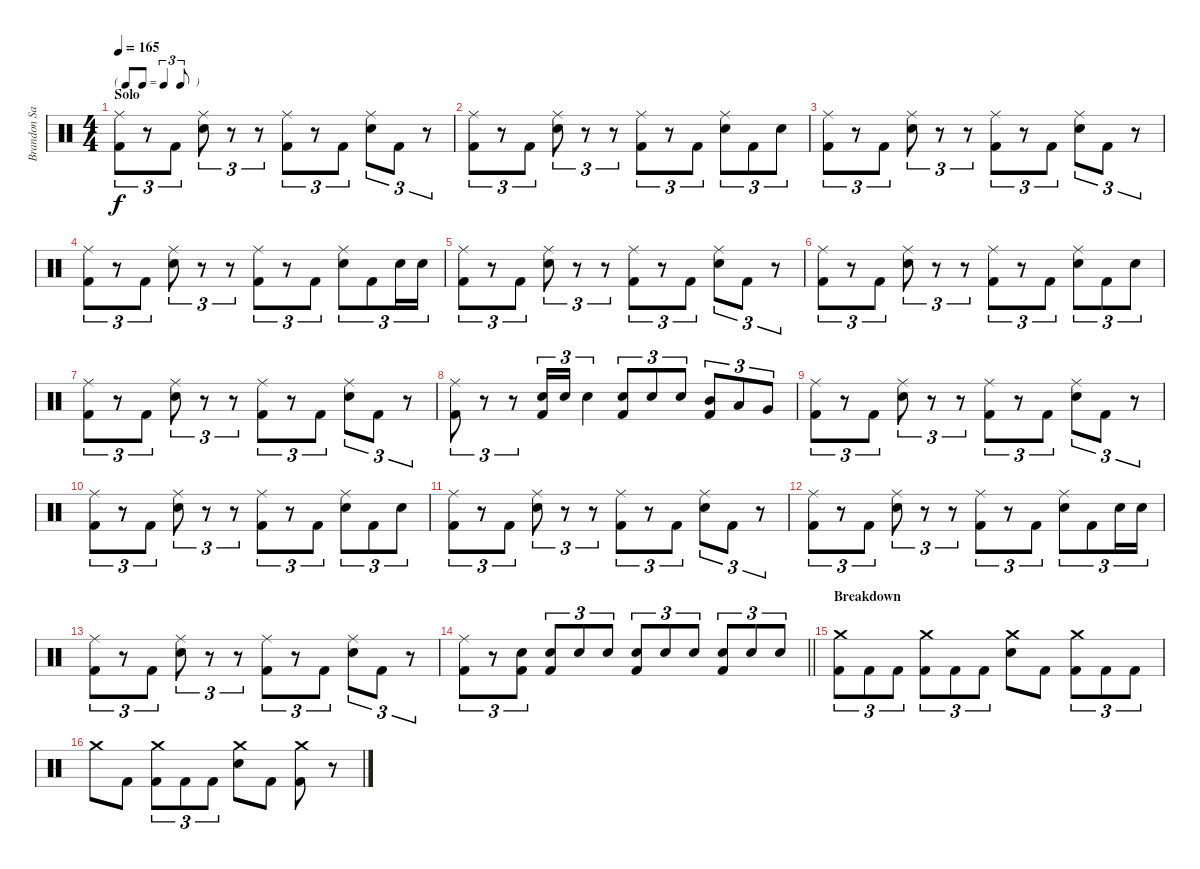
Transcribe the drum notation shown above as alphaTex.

\track ("Brandon Saller" "Brandon Sa") {instrument percussion}
\staff {score}
\articulation defaults
\ts (4 4)
\tf triplet8th
\section ("" "Solo")
\tempo 165
\clef neutral
\ks c
("Ride (middle)" "Kick (hit) 2").8{tu (3 2) dy f} r.8{tu (3 2)} "Kick (hit) 2".8{tu (3 2)} ("Ride (middle)" "Electric Snare (hit)").8{tu (3 2)} r.8{tu (3 2)} r.8{tu (3 2)} ("Ride (middle)" "Kick (hit) 2").8{tu (3 2)} r.8{tu (3 2)} "Kick (hit) 2".8{tu (3 2)} ("Ride (middle)" "Electric Snare (hit)").8{tu (3 2)} "Kick (hit) 2".8{tu (3 2)} r.8{tu (3 2)} |
("Ride (middle)" "Kick (hit) 2").8{tu (3 2)} r.8{tu (3 2)} "Kick (hit) 2".8{tu (3 2)} ("Ride (middle)" "Electric Snare (hit)").8{tu (3 2)} r.8{tu (3 2)} r.8{tu (3 2)} ("Ride (middle)" "Kick (hit) 2").8{tu (3 2)} r.8{tu (3 2)} "Kick (hit) 2".8{tu (3 2)} ("Ride (middle)" "Electric Snare (hit)").8{tu (3 2)} "Kick (hit) 2".8{tu (3 2)} "Electric Snare (hit)".8{tu (3 2)} |
("Ride (middle)" "Kick (hit) 2").8{tu (3 2)} r.8{tu (3 2)} "Kick (hit) 2".8{tu (3 2)} ("Ride (middle)" "Electric Snare (hit)").8{tu (3 2)} r.8{tu (3 2)} r.8{tu (3 2)} ("Ride (middle)" "Kick (hit) 2").8{tu (3 2)} r.8{tu (3 2)} "Kick (hit) 2".8{tu (3 2)} ("Ride (middle)" "Electric Snare (hit)").8{tu (3 2)} "Kick (hit) 2".8{tu (3 2)} r.8{tu (3 2)} |
("Ride (middle)" "Kick (hit) 2").8{tu (3 2)} r.8{tu (3 2)} "Kick (hit) 2".8{tu (3 2)} ("Ride (middle)" "Electric Snare (hit)").8{tu (3 2)} r.8{tu (3 2)} r.8{tu (3 2)} ("Ride (middle)" "Kick (hit) 2").8{tu (3 2)} r.8{tu (3 2)} "Kick (hit) 2".8{tu (3 2)} ("Ride (middle)" "Electric Snare (hit)").8{tu (3 2)} "Kick (hit) 2".8{tu (3 2)} "Electric Snare (hit)".16{tu (3 2)} "Electric Snare (hit)".16{tu (3 2)} |
("Ride (middle)" "Kick (hit) 2").8{tu (3 2)} r.8{tu (3 2)} "Kick (hit) 2".8{tu (3 2)} ("Ride (middle)" "Electric Snare (hit)").8{tu (3 2)} r.8{tu (3 2)} r.8{tu (3 2)} ("Ride (middle)" "Kick (hit) 2").8{tu (3 2)} r.8{tu (3 2)} "Kick (hit) 2".8{tu (3 2)} ("Ride (middle)" "Electric Snare (hit)").8{tu (3 2)} "Kick (hit) 2".8{tu (3 2)} r.8{tu (3 2)} |
("Ride (middle)" "Kick (hit) 2").8{tu (3 2)} r.8{tu (3 2)} "Kick (hit) 2".8{tu (3 2)} ("Ride (middle)" "Electric Snare (hit)").8{tu (3 2)} r.8{tu (3 2)} r.8{tu (3 2)} ("Ride (middle)" "Kick (hit) 2").8{tu (3 2)} r.8{tu (3 2)} "Kick (hit) 2".8{tu (3 2)} ("Ride (middle)" "Electric Snare (hit)").8{tu (3 2)} "Kick (hit) 2".8{tu (3 2)} "Electric Snare (hit)".8{tu (3 2)} |
("Ride (middle)" "Kick (hit) 2").8{tu (3 2)} r.8{tu (3 2)} "Kick (hit) 2".8{tu (3 2)} ("Ride (middle)" "Electric Snare (hit)").8{tu (3 2)} r.8{tu (3 2)} r.8{tu (3 2)} ("Ride (middle)" "Kick (hit) 2").8{tu (3 2)} r.8{tu (3 2)} "Kick (hit) 2".8{tu (3 2)} ("Ride (middle)" "Electric Snare (hit)").8{tu (3 2)} "Kick (hit) 2".8{tu (3 2)} r.8{tu (3 2)} |
("Ride (middle)" "Kick (hit) 2").8{tu (3 2)} r.8{tu (3 2)} r.8{tu (3 2)} ("Electric Snare (hit)" "Kick (hit) 2").16{tu (3 2)} "Electric Snare (hit)".16{tu (3 2)} "Electric Snare (hit)".4{tu (3 2)} ("Electric Snare (hit)" "Kick (hit) 2").8{tu (3 2)} "Electric Snare (hit)".8{tu (3 2)} "Electric Snare (hit)".8{tu (3 2)} ("Mid Tom (hit)" "Kick (hit) 2").8{tu (3 2)} "Low Tom (hit)".8{tu (3 2)} "Very Low Tom (hit)".8{tu (3 2)} |
("Ride (middle)" "Kick (hit) 2").8{tu (3 2)} r.8{tu (3 2)} "Kick (hit) 2".8{tu (3 2)} ("Ride (middle)" "Electric Snare (hit)").8{tu (3 2)} r.8{tu (3 2)} r.8{tu (3 2)} ("Ride (middle)" "Kick (hit) 2").8{tu (3 2)} r.8{tu (3 2)} "Kick (hit) 2".8{tu (3 2)} ("Ride (middle)" "Electric Snare (hit)").8{tu (3 2)} "Kick (hit) 2".8{tu (3 2)} r.8{tu (3 2)} |
("Ride (middle)" "Kick (hit) 2").8{tu (3 2)} r.8{tu (3 2)} "Kick (hit) 2".8{tu (3 2)} ("Ride (middle)" "Electric Snare (hit)").8{tu (3 2)} r.8{tu (3 2)} r.8{tu (3 2)} ("Ride (middle)" "Kick (hit) 2").8{tu (3 2)} r.8{tu (3 2)} "Kick (hit) 2".8{tu (3 2)} ("Ride (middle)" "Electric Snare (hit)").8{tu (3 2)} "Kick (hit) 2".8{tu (3 2)} "Electric Snare (hit)".8{tu (3 2)} |
("Ride (middle)" "Kick (hit) 2").8{tu (3 2)} r.8{tu (3 2)} "Kick (hit) 2".8{tu (3 2)} ("Ride (middle)" "Electric Snare (hit)").8{tu (3 2)} r.8{tu (3 2)} r.8{tu (3 2)} ("Ride (middle)" "Kick (hit) 2").8{tu (3 2)} r.8{tu (3 2)} "Kick (hit) 2".8{tu (3 2)} ("Ride (middle)" "Electric Snare (hit)").8{tu (3 2)} "Kick (hit) 2".8{tu (3 2)} r.8{tu (3 2)} |
("Ride (middle)" "Kick (hit) 2").8{tu (3 2)} r.8{tu (3 2)} "Kick (hit) 2".8{tu (3 2)} ("Ride (middle)" "Electric Snare (hit)").8{tu (3 2)} r.8{tu (3 2)} r.8{tu (3 2)} ("Ride (middle)" "Kick (hit) 2").8{tu (3 2)} r.8{tu (3 2)} "Kick (hit) 2".8{tu (3 2)} ("Ride (middle)" "Electric Snare (hit)").8{tu (3 2)} "Kick (hit) 2".8{tu (3 2)} "Electric Snare (hit)".16{tu (3 2)} "Electric Snare (hit)".16{tu (3 2)} |
("Ride (middle)" "Kick (hit) 2").8{tu (3 2)} r.8{tu (3 2)} "Kick (hit) 2".8{tu (3 2)} ("Ride (middle)" "Electric Snare (hit)").8{tu (3 2)} r.8{tu (3 2)} r.8{tu (3 2)} ("Ride (middle)" "Kick (hit) 2").8{tu (3 2)} r.8{tu (3 2)} "Kick (hit) 2".8{tu (3 2)} ("Ride (middle)" "Electric Snare (hit)").8{tu (3 2)} "Kick (hit) 2".8{tu (3 2)} r.8{tu (3 2)} |
\barLineRight lightlight
("Ride (middle)" "Kick (hit) 2").8{tu (3 2)} r.8{tu (3 2)} ("Electric Snare (hit)" "Kick (hit) 2").8{tu (3 2)} ("Electric Snare (hit)" "Kick (hit) 2").8{tu (3 2)} "Electric Snare (hit)".8{tu (3 2)} "Electric Snare (hit)".8{tu (3 2)} ("Electric Snare (hit)" "Kick (hit) 2").8{tu (3 2)} "Electric Snare (hit)".8{tu (3 2)} "Electric Snare (hit)".8{tu (3 2)} ("Electric Snare (hit)" "Kick (hit) 2").8{tu (3 2)} "Electric Snare (hit)".8{tu (3 2)} "Electric Snare (hit)".8{tu (3 2)} |
\section ("" "Breakdown")
("Crash medium (hit)" "Kick (hit) 2").8{tu (3 2)} "Kick (hit) 2".8{tu (3 2)} "Kick (hit) 2".8{tu (3 2)} ("Crash medium (hit)" "Kick (hit) 2").8{tu (3 2)} "Kick (hit) 2".8{tu (3 2)} "Kick (hit) 2".8{tu (3 2)} ("Crash medium (hit)" "Electric Snare (hit)").8 "Kick (hit) 2".8 ("Crash medium (hit)" "Kick (hit) 2").8{tu (3 2)} "Kick (hit) 2".8{tu (3 2)} "Kick (hit) 2".8{tu (3 2)} |
"Crash medium (hit)".8 "Kick (hit) 2".8 ("Crash medium (hit)" "Kick (hit) 2").8{tu (3 2)} "Kick (hit) 2".8{tu (3 2)} "Kick (hit) 2".8{tu (3 2)} ("Crash medium (hit)" "Electric Snare (hit)").8 "Kick (hit) 2".8 ("Crash medium (hit)" "Kick (hit) 2").8 r.8
